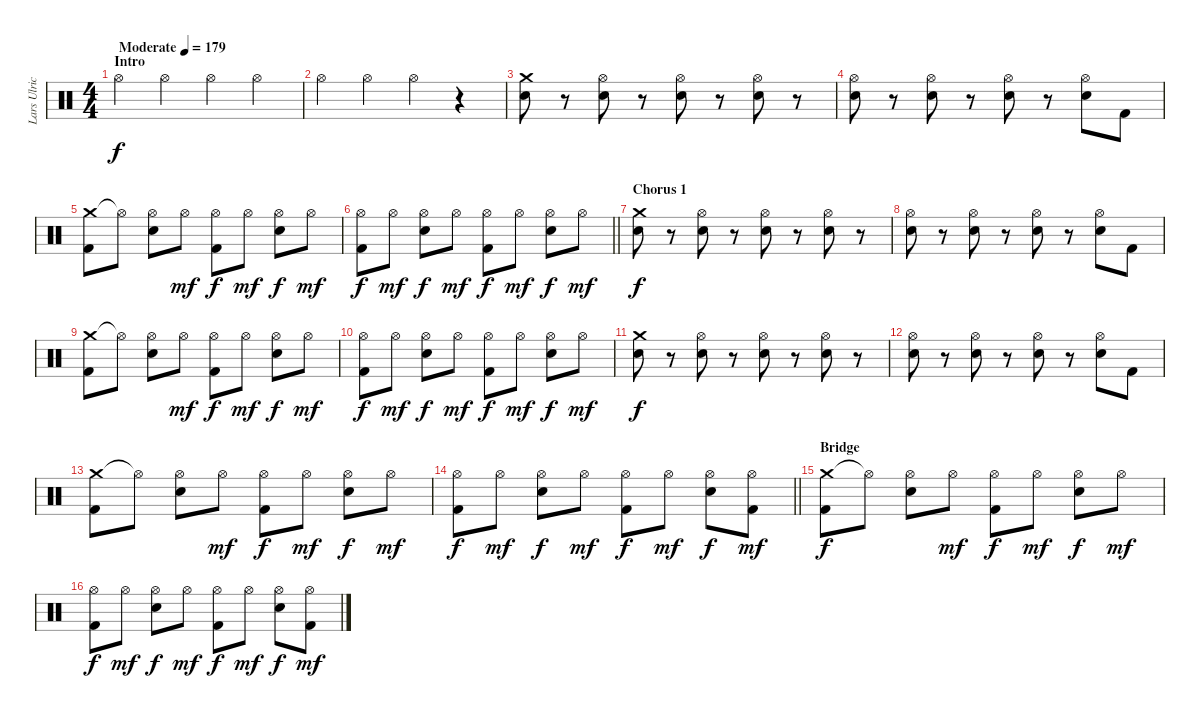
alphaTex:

\track ("Lars Ulrich" "Lars Ulric") {instrument percussion}
\staff {score}
\articulation defaults
\ts (4 4)
\section ("" "Intro")
\tempo (179 "Moderate")
\clef neutral
\ks c "Hi-Hat (open)".4{dy f} "Hi-Hat (open)".4 "Hi-Hat (open)".4 "Hi-Hat (open)".4
|
"Hi-Hat (open)".4 "Hi-Hat (open)".4 "Hi-Hat (open)".4 r.4 |
("Crash medium (hit)" "Electric Snare (hit)").8 r.8 ("Hi-Hat (open)" "Electric Snare (hit)").8 r.8 ("Hi-Hat (open)" "Electric Snare (hit)").8 r.8 ("Hi-Hat (open)" "Electric Snare (hit)").8 r.8 |
("Hi-Hat (open)" "Electric Snare (hit)").8 r.8 ("Hi-Hat (open)" "Electric Snare (hit)").8 r.8 ("Hi-Hat (open)" "Electric Snare (hit)").8 r.8 ("Hi-Hat (open)" "Electric Snare (hit)").8 "Kick (hit) 2".8 |
("Crash medium (hit)" "Kick (hit) 2").8 "Hi-Hat (open)"{t}.8 ("Hi-Hat (open)" "Electric Snare (hit)").8 "Hi-Hat (open)".8{dy mf} ("Hi-Hat (open)" "Kick (hit) 2").8{dy f} "Hi-Hat (open)".8{dy mf} ("Hi-Hat (open)" "Electric Snare (hit)").8{dy f} "Hi-Hat (open)".8{dy mf} |
\barLineRight lightlight
("Hi-Hat (open)" "Kick (hit) 2").8{dy f} "Hi-Hat (open)".8{dy mf} ("Hi-Hat (open)" "Electric Snare (hit)").8{dy f} "Hi-Hat (open)".8{dy mf} ("Hi-Hat (open)" "Kick (hit) 2").8{dy f} "Hi-Hat (open)".8{dy mf} ("Hi-Hat (open)" "Electric Snare (hit)").8{dy f} "Hi-Hat (open)".8{dy mf} |
\section ("" "Chorus 1")
("Crash medium (hit)" "Electric Snare (hit)").8{dy f} r.8 ("Hi-Hat (open)" "Electric Snare (hit)").8 r.8 ("Hi-Hat (open)" "Electric Snare (hit)").8 r.8 ("Hi-Hat (open)" "Electric Snare (hit)").8 r.8 |
("Hi-Hat (open)" "Electric Snare (hit)").8 r.8 ("Hi-Hat (open)" "Electric Snare (hit)").8 r.8 ("Hi-Hat (open)" "Electric Snare (hit)").8 r.8 ("Hi-Hat (open)" "Electric Snare (hit)").8 "Kick (hit) 2".8 |
("Crash medium (hit)" "Kick (hit) 2").8 "Hi-Hat (open)"{t}.8 ("Hi-Hat (open)" "Electric Snare (hit)").8 "Hi-Hat (open)".8{dy mf} ("Hi-Hat (open)" "Kick (hit) 2").8{dy f} "Hi-Hat (open)".8{dy mf} ("Hi-Hat (open)" "Electric Snare (hit)").8{dy f} "Hi-Hat (open)".8{dy mf} |
("Hi-Hat (open)" "Kick (hit) 2").8{dy f} "Hi-Hat (open)".8{dy mf} ("Hi-Hat (open)" "Electric Snare (hit)").8{dy f} "Hi-Hat (open)".8{dy mf} ("Hi-Hat (open)" "Kick (hit) 2").8{dy f} "Hi-Hat (open)".8{dy mf} ("Hi-Hat (open)" "Electric Snare (hit)").8{dy f} "Hi-Hat (open)".8{dy mf} |
("Crash medium (hit)" "Electric Snare (hit)").8{dy f} r.8 ("Hi-Hat (open)" "Electric Snare (hit)").8 r.8 ("Hi-Hat (open)" "Electric Snare (hit)").8 r.8 ("Hi-Hat (open)" "Electric Snare (hit)").8 r.8 |
("Hi-Hat (open)" "Electric Snare (hit)").8 r.8 ("Hi-Hat (open)" "Electric Snare (hit)").8 r.8 ("Hi-Hat (open)" "Electric Snare (hit)").8 r.8 ("Hi-Hat (open)" "Electric Snare (hit)").8 "Kick (hit) 2".8 |
("Crash medium (hit)" "Kick (hit) 2").8 "Hi-Hat (open)"{t}.8 ("Hi-Hat (open)" "Electric Snare (hit)").8 "Hi-Hat (open)".8{dy mf} ("Hi-Hat (open)" "Kick (hit) 2").8{dy f} "Hi-Hat (open)".8{dy mf} ("Hi-Hat (open)" "Electric Snare (hit)").8{dy f} "Hi-Hat (open)".8{dy mf} |
\barLineRight lightlight
("Hi-Hat (open)" "Kick (hit) 2").8{dy f} "Hi-Hat (open)".8{dy mf} ("Hi-Hat (open)" "Electric Snare (hit)").8{dy f} "Hi-Hat (open)".8{dy mf} ("Hi-Hat (open)" "Kick (hit) 2").8{dy f} "Hi-Hat (open)".8{dy mf} ("Hi-Hat (open)" "Electric Snare (hit)").8{dy f} ("Hi-Hat (open)" "Kick (hit) 2").8{dy mf} |
\section ("" "Bridge")
("Crash medium (hit)" "Kick (hit) 2").8{dy f} "Hi-Hat (open)"{t}.8 ("Hi-Hat (open)" "Electric Snare (hit)").8 "Hi-Hat (open)".8{dy mf} ("Hi-Hat (open)" "Kick (hit) 2").8{dy f} "Hi-Hat (open)".8{dy mf} ("Hi-Hat (open)" "Electric Snare (hit)").8{dy f} "Hi-Hat (open)".8{dy mf} |
("Hi-Hat (open)" "Kick (hit) 2").8{dy f} "Hi-Hat (open)".8{dy mf} ("Hi-Hat (open)" "Electric Snare (hit)").8{dy f} "Hi-Hat (open)".8{dy mf} ("Hi-Hat (open)" "Kick (hit) 2").8{dy f} "Hi-Hat (open)".8{dy mf} ("Hi-Hat (open)" "Electric Snare (hit)").8{dy f} ("Hi-Hat (open)" "Kick (hit) 2").8{dy mf}
